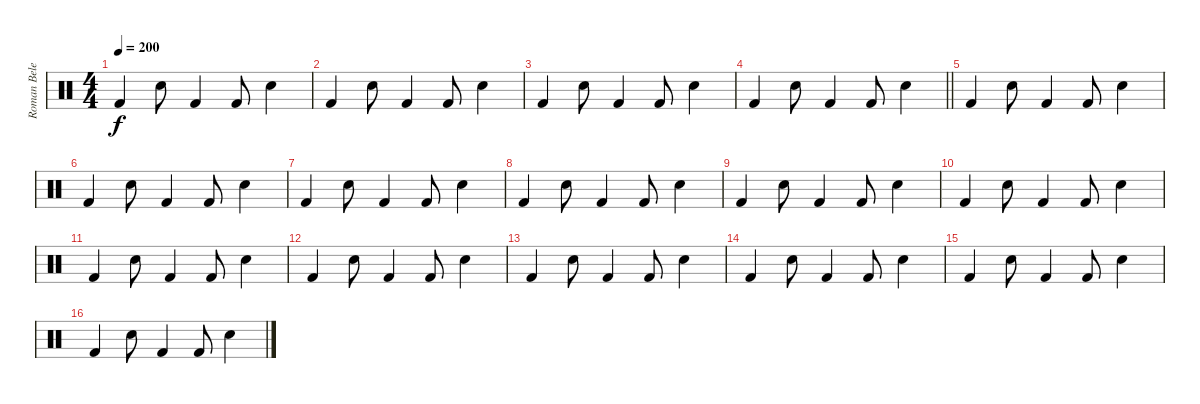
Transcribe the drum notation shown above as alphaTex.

\track ("Roman Belenkiy" "Roman Bele") {instrument percussion}
\staff {score}
\articulation defaults
\ts (4 4)
\tempo 200
\clef neutral
\ks c "Kick (hit) 2".4{dy f} "Snare (hit) 2".8 "Kick (hit) 2".4 "Kick (hit) 2".8 "Snare (hit) 2".4
|
"Kick (hit) 2".4 "Snare (hit) 2".8 "Kick (hit) 2".4 "Kick (hit) 2".8 "Snare (hit) 2".4 |
"Kick (hit) 2".4 "Snare (hit) 2".8 "Kick (hit) 2".4 "Kick (hit) 2".8 "Snare (hit) 2".4 |
\barLineRight lightlight "Kick (hit) 2".4 "Snare (hit) 2".8 "Kick (hit) 2".4 "Kick (hit) 2".8 "Snare (hit) 2".4
|
\section ("" "")
"Kick (hit) 2".4 "Snare (hit) 2".8 "Kick (hit) 2".4 "Kick (hit) 2".8 "Snare (hit) 2".4 |
"Kick (hit) 2".4 "Snare (hit) 2".8 "Kick (hit) 2".4 "Kick (hit) 2".8 "Snare (hit) 2".4 |
"Kick (hit) 2".4 "Snare (hit) 2".8 "Kick (hit) 2".4 "Kick (hit) 2".8 "Snare (hit) 2".4 |
"Kick (hit) 2".4 "Snare (hit) 2".8 "Kick (hit) 2".4 "Kick (hit) 2".8 "Snare (hit) 2".4 |
"Kick (hit) 2".4 "Snare (hit) 2".8 "Kick (hit) 2".4 "Kick (hit) 2".8 "Snare (hit) 2".4 |
"Kick (hit) 2".4 "Snare (hit) 2".8 "Kick (hit) 2".4 "Kick (hit) 2".8 "Snare (hit) 2".4 |
"Kick (hit) 2".4 "Snare (hit) 2".8 "Kick (hit) 2".4 "Kick (hit) 2".8 "Snare (hit) 2".4 |
"Kick (hit) 2".4 "Snare (hit) 2".8 "Kick (hit) 2".4 "Kick (hit) 2".8 "Snare (hit) 2".4 |
"Kick (hit) 2".4{volume 10} "Snare (hit) 2".8 "Kick (hit) 2".4 "Kick (hit) 2".8 "Snare (hit) 2".4 |
"Kick (hit) 2".4 "Snare (hit) 2".8 "Kick (hit) 2".4 "Kick (hit) 2".8 "Snare (hit) 2".4 |
"Kick (hit) 2".4 "Snare (hit) 2".8 "Kick (hit) 2".4 "Kick (hit) 2".8 "Snare (hit) 2".4 |
"Kick (hit) 2".4 "Snare (hit) 2".8 "Kick (hit) 2".4 "Kick (hit) 2".8 "Snare (hit) 2".4
